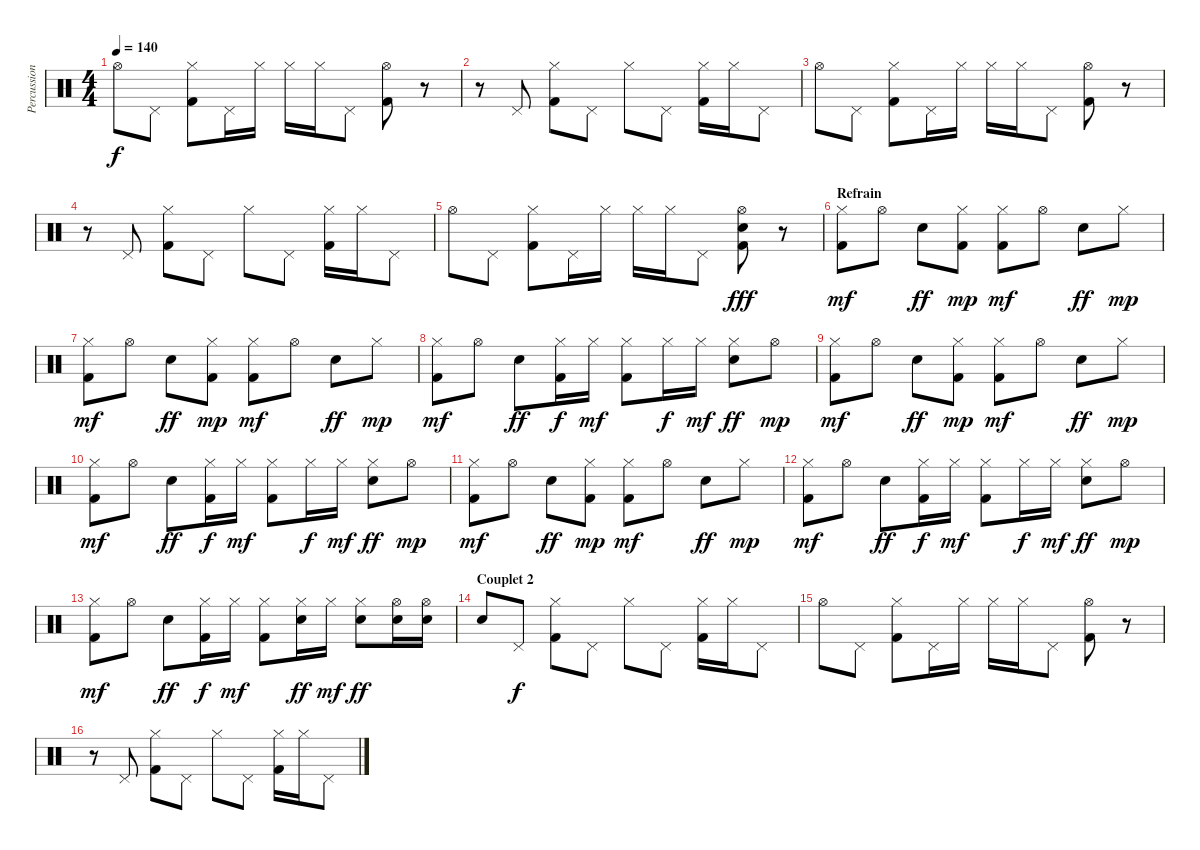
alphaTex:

\track ("Percussions" "Percussion") {instrument percussion}
\staff {score}
\articulation defaults
\ts (4 4)
\tempo 140
\clef neutral
\ks c "Hi-Hat (open)".8{dy f} "Pedal Hi-Hat (hit)".8
("Hi-Hat (closed)" "Kick (hit) 2").8 "Pedal Hi-Hat (hit)".16 "Hi-Hat (closed)".16 "Hi-Hat (closed)".16 "Hi-Hat (closed)".16 "Pedal Hi-Hat (hit)".8 ("Hi-Hat (open)" "Kick (hit) 2").8 r.8 |
r.8 "Pedal Hi-Hat (hit)".8 ("Hi-Hat (closed)" "Kick (hit) 2").8 "Pedal Hi-Hat (hit)".8 "Hi-Hat (closed)".8 "Pedal Hi-Hat (hit)".8 ("Hi-Hat (closed)" "Kick (hit) 2").16 "Hi-Hat (closed)".16 "Pedal Hi-Hat (hit)".8 |
"Hi-Hat (open)".8 "Pedal Hi-Hat (hit)".8 ("Hi-Hat (closed)" "Kick (hit) 2").8 "Pedal Hi-Hat (hit)".16 "Hi-Hat (closed)".16 "Hi-Hat (closed)".16 "Hi-Hat (closed)".16 "Pedal Hi-Hat (hit)".8 ("Hi-Hat (open)" "Kick (hit) 2").8 r.8 |
r.8 "Pedal Hi-Hat (hit)".8 ("Hi-Hat (closed)" "Kick (hit) 2").8 "Pedal Hi-Hat (hit)".8 "Hi-Hat (closed)".8 "Pedal Hi-Hat (hit)".8 ("Hi-Hat (closed)" "Kick (hit) 2").16 "Hi-Hat (closed)".16 "Pedal Hi-Hat (hit)".8 |
"Hi-Hat (open)".8 "Pedal Hi-Hat (hit)".8 ("Hi-Hat (closed)" "Kick (hit) 2").8 "Pedal Hi-Hat (hit)".16 "Hi-Hat (closed)".16 "Hi-Hat (closed)".16 "Hi-Hat (closed)".16 "Pedal Hi-Hat (hit)".8 ("Hi-Hat (open)" "Electric Snare (hit)" "Kick (hit) 2").8{dy fff} r.8 |
\section ("" "Refrain")
("Hi-Hat (closed)" "Kick (hit) 2").8{dy mf} "Hi-Hat (open)".8 "Electric Snare (hit)".8{dy ff} ("Hi-Hat (closed)" "Kick (hit) 2").8{dy mp} ("Hi-Hat (closed)" "Kick (hit) 2").8{dy mf} "Hi-Hat (open)".8 "Electric Snare (hit)".8{dy ff} "Hi-Hat (closed)".8{dy mp} |
("Hi-Hat (closed)" "Kick (hit) 2").8{dy mf} "Hi-Hat (open)".8 "Electric Snare (hit)".8{dy ff} ("Hi-Hat (closed)" "Kick (hit) 2").8{dy mp} ("Hi-Hat (closed)" "Kick (hit) 2").8{dy mf} "Hi-Hat (open)".8 "Electric Snare (hit)".8{dy ff} "Hi-Hat (closed)".8{dy mp} |
("Hi-Hat (closed)" "Kick (hit) 2").8{dy mf} "Hi-Hat (open)".8 "Electric Snare (hit)".8{dy ff} ("Hi-Hat (closed)" "Kick (hit) 2").16{dy f} "Hi-Hat (closed)".16{dy mf} ("Hi-Hat (closed)" "Kick (hit) 2").8 "Hi-Hat (closed)".16{dy f} "Hi-Hat (closed)".16{dy mf} ("Hi-Hat (closed)" "Electric Snare (hit)").8{dy ff} "Hi-Hat (open)".8{dy mp} |
("Hi-Hat (closed)" "Kick (hit) 2").8{dy mf} "Hi-Hat (open)".8 "Electric Snare (hit)".8{dy ff} ("Hi-Hat (closed)" "Kick (hit) 2").8{dy mp} ("Hi-Hat (closed)" "Kick (hit) 2").8{dy mf} "Hi-Hat (open)".8 "Electric Snare (hit)".8{dy ff} "Hi-Hat (closed)".8{dy mp} |
("Hi-Hat (closed)" "Kick (hit) 2").8{dy mf} "Hi-Hat (open)".8 "Electric Snare (hit)".8{dy ff} ("Hi-Hat (closed)" "Kick (hit) 2").16{dy f} "Hi-Hat (closed)".16{dy mf} ("Hi-Hat (closed)" "Kick (hit) 2").8 "Hi-Hat (closed)".16{dy f} "Hi-Hat (closed)".16{dy mf} ("Hi-Hat (closed)" "Electric Snare (hit)").8{dy ff} "Hi-Hat (open)".8{dy mp} |
("Hi-Hat (closed)" "Kick (hit) 2").8{dy mf} "Hi-Hat (open)".8 "Electric Snare (hit)".8{dy ff} ("Hi-Hat (closed)" "Kick (hit) 2").8{dy mp} ("Hi-Hat (closed)" "Kick (hit) 2").8{dy mf} "Hi-Hat (open)".8 "Electric Snare (hit)".8{dy ff} "Hi-Hat (closed)".8{dy mp} |
("Hi-Hat (closed)" "Kick (hit) 2").8{dy mf} "Hi-Hat (open)".8 "Electric Snare (hit)".8{dy ff} ("Hi-Hat (closed)" "Kick (hit) 2").16{dy f} "Hi-Hat (closed)".16{dy mf} ("Hi-Hat (closed)" "Kick (hit) 2").8 "Hi-Hat (closed)".16{dy f} "Hi-Hat (closed)".16{dy mf} ("Hi-Hat (closed)" "Electric Snare (hit)").8{dy ff} "Hi-Hat (open)".8{dy mp} |
("Hi-Hat (closed)" "Kick (hit) 2").8{dy mf} "Hi-Hat (open)".8 "Electric Snare (hit)".8{dy ff} ("Hi-Hat (closed)" "Kick (hit) 2").16{dy f} "Hi-Hat (closed)".16{dy mf} ("Hi-Hat (closed)" "Kick (hit) 2").8 ("Hi-Hat (closed)" "Electric Snare (hit)").16{dy ff} "Hi-Hat (closed)".16{dy mf} ("Hi-Hat (closed)" "Electric Snare (hit)").8{dy ff} ("Hi-Hat (open)" "Electric Snare (hit)").16 ("Hi-Hat (open)" "Electric Snare (hit)").16 |
\section ("" "Couplet 2")
"Electric Snare (hit)".8 "Pedal Hi-Hat (hit)".8{dy f} ("Hi-Hat (closed)" "Kick (hit) 2").8 "Pedal Hi-Hat (hit)".8 "Hi-Hat (closed)".8 "Pedal Hi-Hat (hit)".8 ("Hi-Hat (closed)" "Kick (hit) 2").16 "Hi-Hat (closed)".16 "Pedal Hi-Hat (hit)".8 |
"Hi-Hat (open)".8 "Pedal Hi-Hat (hit)".8 ("Hi-Hat (closed)" "Kick (hit) 2").8 "Pedal Hi-Hat (hit)".16 "Hi-Hat (closed)".16 "Hi-Hat (closed)".16 "Hi-Hat (closed)".16 "Pedal Hi-Hat (hit)".8 ("Hi-Hat (open)" "Kick (hit) 2").8 r.8 |
r.8 "Pedal Hi-Hat (hit)".8 ("Hi-Hat (closed)" "Kick (hit) 2").8 "Pedal Hi-Hat (hit)".8 "Hi-Hat (closed)".8 "Pedal Hi-Hat (hit)".8 ("Hi-Hat (closed)" "Kick (hit) 2").16 "Hi-Hat (closed)".16 "Pedal Hi-Hat (hit)".8
